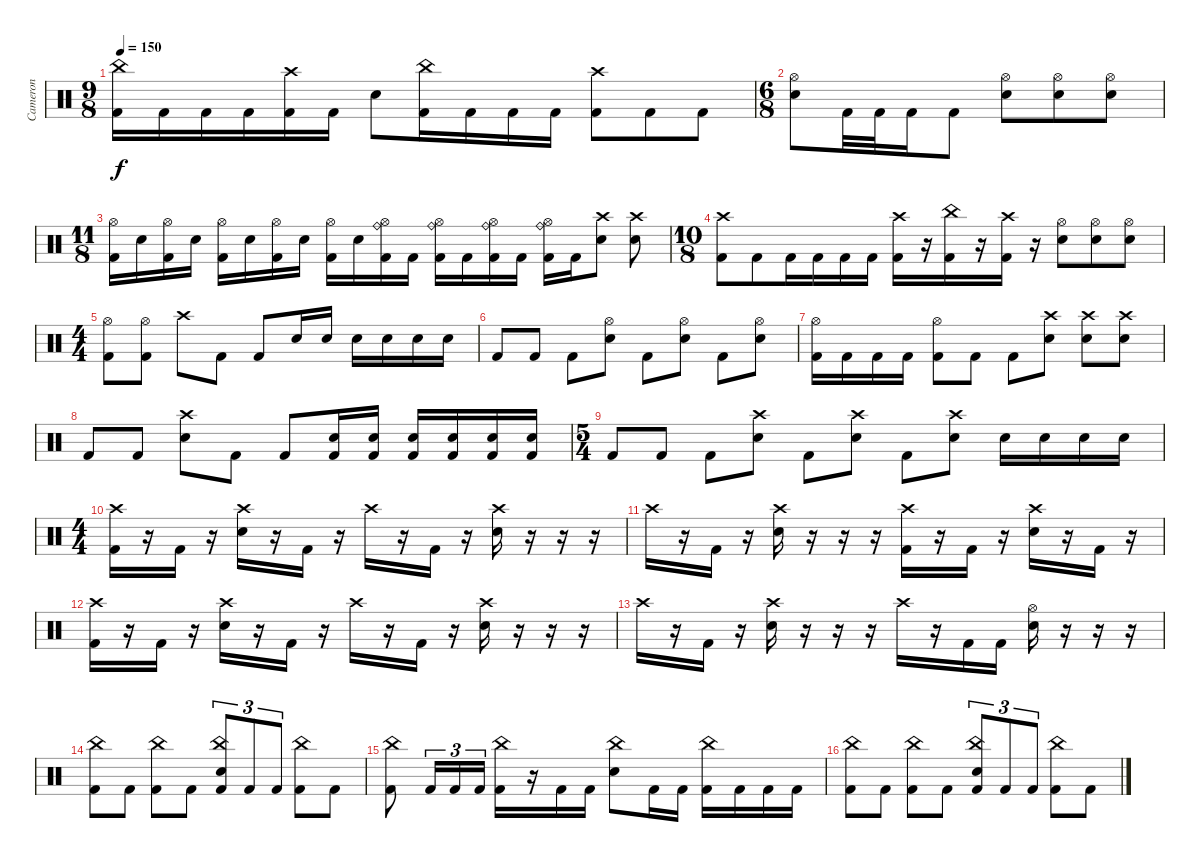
\track ("Cameron" "Cameron") {instrument percussion}
\staff {score}
\articulation defaults
\ts (9 8)
\tempo 150
\clef neutral
\ks c
("Kick (hit) 2" "China (hit)").16{dy f} "Kick (hit) 2".16 "Kick (hit) 2".16 "Kick (hit) 2".16 ("Kick (hit) 2" "Crash high (hit)").16 "Kick (hit) 2".16 "Electric Snare (hit)".8 ("Kick (hit) 2" "China (hit)").16 "Kick (hit) 2".16 "Kick (hit) 2".16 "Kick (hit) 2".16 ("Kick (hit) 2" "Crash high (hit)").8 "Kick (hit) 2".8 "Kick (hit) 2".8 |
\ts (6 8)
("Electric Snare (hit)" "Hi-Hat (open)").8 "Kick (hit) 2".32 "Kick (hit) 2".32 "Kick (hit) 2".16 "Kick (hit) 2".8 ("Electric Snare (hit)" "Hi-Hat (open)").8 ("Electric Snare (hit)" "Hi-Hat (open)").8 ("Electric Snare (hit)" "Hi-Hat (open)").8 |
\ts (11 8)
("Kick (hit) 2" "Hi-Hat (open)").16 "Electric Snare (hit)".16 ("Kick (hit) 2" "Hi-Hat (open)").16 "Electric Snare (hit)".16 ("Kick (hit) 2" "Hi-Hat (open)").16 "Electric Snare (hit)".16 ("Kick (hit) 2" "Hi-Hat (open)").16 "Electric Snare (hit)".16 ("Kick (hit) 2" "Hi-Hat (open)").16 "Electric Snare (hit)".16 ("Kick (hit) 2" "Hi-Hat (open)" "Ride (bell)").16 "Kick (hit) 2".16 ("Kick (hit) 2" "Hi-Hat (open)" "Ride (bell)").16 "Kick (hit) 2".16 ("Kick (hit) 2" "Hi-Hat (open)" "Ride (bell)").16 "Kick (hit) 2".16 ("Kick (hit) 2" "Hi-Hat (open)" "Ride (bell)").16 "Kick (hit) 2".16 ("Electric Snare (hit)" "Crash high (hit)").8 ("Electric Snare (hit)" "Crash high (hit)").8 |
\ts (10 8)
("Kick (hit) 2" "Crash high (hit)").8 "Kick (hit) 2".8 "Kick (hit) 2".16 "Kick (hit) 2".16 "Kick (hit) 2".16 "Kick (hit) 2".16 ("Kick (hit) 2" "Crash high (hit)").16 r.16 ("Kick (hit) 2" "China (hit)").16 r.16 ("Kick (hit) 2" "Crash high (hit)").16 r.16 ("Electric Snare (hit)" "Hi-Hat (open)").8 ("Electric Snare (hit)" "Hi-Hat (open)").8 ("Electric Snare (hit)" "Hi-Hat (open)").8 |
\ts (4 4)
("Kick (hit) 2" "Hi-Hat (open)").8 ("Kick (hit) 2" "Hi-Hat (open)").8 "Crash high (hit)".8 "Kick (hit) 2".8 "Kick (hit) 2".8 "Electric Snare (hit)".16 "Electric Snare (hit)".16 "Electric Snare (hit)".16 "Electric Snare (hit)".16 "Electric Snare (hit)".16 "Electric Snare (hit)".16 |
"Kick (hit) 2".8 "Kick (hit) 2".8 "Kick (hit) 2".8 ("Electric Snare (hit)" "Hi-Hat (open)").8 "Kick (hit) 2".8 ("Electric Snare (hit)" "Hi-Hat (open)").8 "Kick (hit) 2".8 ("Electric Snare (hit)" "Hi-Hat (open)").8 |
("Kick (hit) 2" "Hi-Hat (open)").16 "Kick (hit) 2".16 "Kick (hit) 2".16 "Kick (hit) 2".16 ("Kick (hit) 2" "Hi-Hat (open)").8 "Kick (hit) 2".8 "Kick (hit) 2".8 ("Electric Snare (hit)" "Crash high (hit)").8 ("Electric Snare (hit)" "Crash high (hit)").8 ("Electric Snare (hit)" "Crash high (hit)").8 |
"Kick (hit) 2".8 "Kick (hit) 2".8 ("Electric Snare (hit)" "Crash high (hit)").8 "Kick (hit) 2".8 "Kick (hit) 2".8 ("Kick (hit) 2" "Electric Snare (hit)").16 ("Kick (hit) 2" "Electric Snare (hit)").16 ("Kick (hit) 2" "Electric Snare (hit)").16 ("Kick (hit) 2" "Electric Snare (hit)").16 ("Kick (hit) 2" "Electric Snare (hit)").16 ("Kick (hit) 2" "Electric Snare (hit)").16 |
\ts (5 4)
"Kick (hit) 2".8 "Kick (hit) 2".8 "Kick (hit) 2".8 ("Electric Snare (hit)" "Crash high (hit)").8 "Kick (hit) 2".8 ("Electric Snare (hit)" "Crash high (hit)").8 "Kick (hit) 2".8 ("Electric Snare (hit)" "Crash high (hit)").8 "Electric Snare (hit)".16 "Electric Snare (hit)".16 "Electric Snare (hit)".16 "Electric Snare (hit)".16 |
\ts (4 4)
("Kick (hit) 2" "Crash high (hit)").16 r.16 "Kick (hit) 2".16 r.16 ("Electric Snare (hit)" "Crash high (hit)").16 r.16 "Kick (hit) 2".16 r.16 "Crash high (hit)".16 r.16 "Kick (hit) 2".16 r.16 ("Electric Snare (hit)" "Crash high (hit)").16 r.16 r.16 r.16 |
"Crash high (hit)".16 r.16 "Kick (hit) 2".16 r.16 ("Electric Snare (hit)" "Crash high (hit)").16 r.16 r.16 r.16 ("Kick (hit) 2" "Crash high (hit)").16 r.16 "Kick (hit) 2".16 r.16 ("Electric Snare (hit)" "Crash high (hit)").16 r.16 "Kick (hit) 2".16 r.16 |
("Kick (hit) 2" "Crash high (hit)").16 r.16 "Kick (hit) 2".16 r.16 ("Electric Snare (hit)" "Crash high (hit)").16 r.16 "Kick (hit) 2".16 r.16 "Crash high (hit)".16 r.16 "Kick (hit) 2".16 r.16 ("Electric Snare (hit)" "Crash high (hit)").16 r.16 r.16 r.16 |
"Crash high (hit)".16 r.16 "Kick (hit) 2".16 r.16 ("Electric Snare (hit)" "Crash high (hit)").16 r.16 r.16 r.16 "Crash high (hit)".16 r.16 "Kick (hit) 2".16 "Kick (hit) 2".16 ("Electric Snare (hit)" "Hi-Hat (open)").16 r.16 r.16 r.16 |
("Kick (hit) 2" "China (hit)").8 "Kick (hit) 2".8 ("Kick (hit) 2" "China (hit)").8 "Kick (hit) 2".8 ("Kick (hit) 2" "Electric Snare (hit)" "China (hit)").8{tu (3 2)} "Kick (hit) 2".8{tu (3 2)} "Kick (hit) 2".8{tu (3 2)} ("Kick (hit) 2" "China (hit)").8 "Kick (hit) 2".8 |
("Kick (hit) 2" "China (hit)").8 "Kick (hit) 2".16{tu (3 2)} "Kick (hit) 2".16{tu (3 2)} "Kick (hit) 2".16{tu (3 2)} ("Kick (hit) 2" "China (hit)").16 r.16 "Kick (hit) 2".16 "Kick (hit) 2".16 ("Electric Snare (hit)" "China (hit)").8 "Kick (hit) 2".16 "Kick (hit) 2".16 ("Kick (hit) 2" "China (hit)").16 "Kick (hit) 2".16 "Kick (hit) 2".16 "Kick (hit) 2".16 |
("Kick (hit) 2" "China (hit)").8 "Kick (hit) 2".8 ("Kick (hit) 2" "China (hit)").8 "Kick (hit) 2".8 ("Kick (hit) 2" "Electric Snare (hit)" "China (hit)").8{tu (3 2)} "Kick (hit) 2".8{tu (3 2)} "Kick (hit) 2".8{tu (3 2)} ("Kick (hit) 2" "China (hit)").8 "Kick (hit) 2".8
